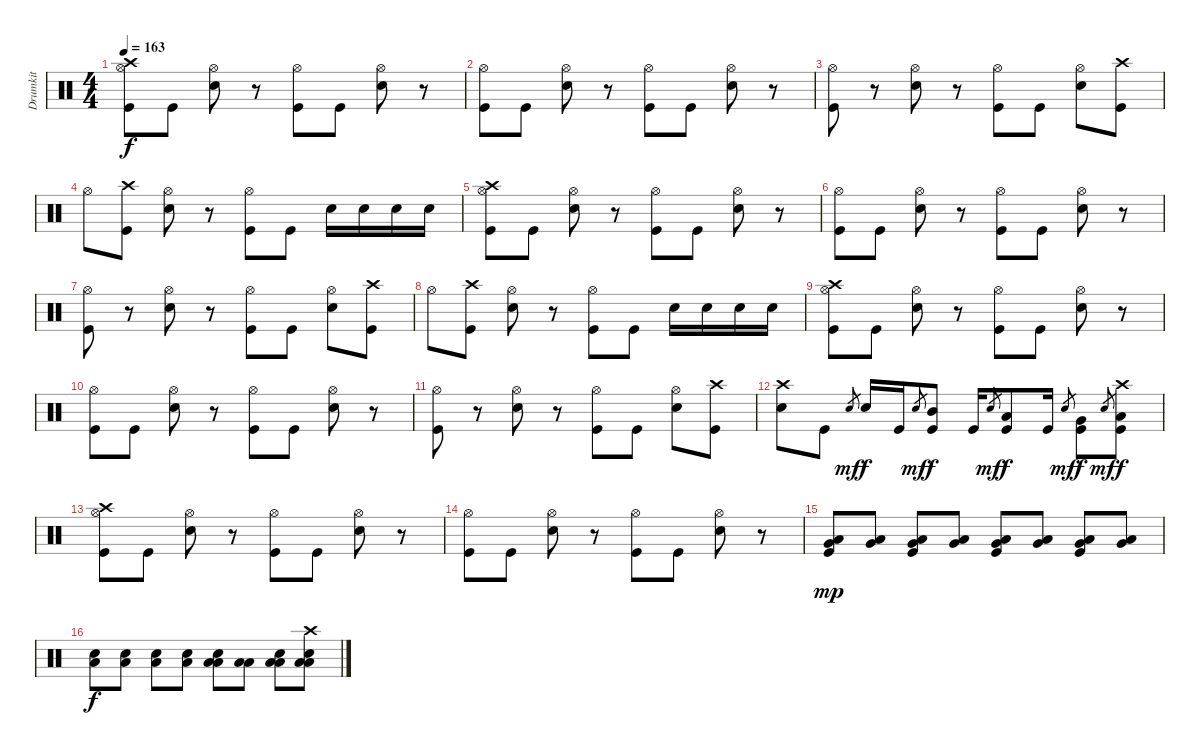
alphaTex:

\track ("Drumkit" "Drumkit") {instrument percussion}
\staff {score}
\articulation defaults
\ts (4 4)
\tempo 163
\clef neutral
\ks c
("Crash high (hit)" "Kick (hit)" "Hi-Hat (open)").8{dy f} "Kick (hit)".8 ("Snare (hit) 2" "Hi-Hat (open)").8 r.8 ("Kick (hit)" "Hi-Hat (open)").8 "Kick (hit)".8 ("Snare (hit) 2" "Hi-Hat (open)").8 r.8 |
("Kick (hit)" "Hi-Hat (open)").8 "Kick (hit)".8 ("Snare (hit) 2" "Hi-Hat (open)").8 r.8 ("Kick (hit)" "Hi-Hat (open)").8 "Kick (hit)".8 ("Snare (hit) 2" "Hi-Hat (open)").8 r.8 |
("Kick (hit)" "Hi-Hat (open)").8 r.8 ("Snare (hit) 2" "Hi-Hat (open)").8 r.8 ("Kick (hit)" "Hi-Hat (open)").8 "Kick (hit)".8 ("Snare (hit) 2" "Hi-Hat (open)").8 ("Kick (hit)" "Crash high (hit)").8 |
"Hi-Hat (open)".8 ("Kick (hit)" "Crash high (hit)").8 ("Snare (hit) 2" "Hi-Hat (open)").8 r.8 ("Kick (hit)" "Hi-Hat (open)").8 "Kick (hit)".8 "Snare (hit) 2".16 "Snare (hit) 2".16 "Snare (hit) 2".16 "Snare (hit) 2".16 |
("Crash high (hit)" "Kick (hit)" "Hi-Hat (open)").8 "Kick (hit)".8 ("Snare (hit) 2" "Hi-Hat (open)").8 r.8 ("Kick (hit)" "Hi-Hat (open)").8 "Kick (hit)".8 ("Snare (hit) 2" "Hi-Hat (open)").8 r.8 |
("Kick (hit)" "Hi-Hat (open)").8 "Kick (hit)".8 ("Snare (hit) 2" "Hi-Hat (open)").8 r.8 ("Kick (hit)" "Hi-Hat (open)").8 "Kick (hit)".8 ("Snare (hit) 2" "Hi-Hat (open)").8 r.8 |
("Kick (hit)" "Hi-Hat (open)").8 r.8 ("Snare (hit) 2" "Hi-Hat (open)").8 r.8 ("Kick (hit)" "Hi-Hat (open)").8 "Kick (hit)".8 ("Snare (hit) 2" "Hi-Hat (open)").8 ("Kick (hit)" "Crash high (hit)").8 |
"Hi-Hat (open)".8 ("Kick (hit)" "Crash high (hit)").8 ("Snare (hit) 2" "Hi-Hat (open)").8 r.8 ("Kick (hit)" "Hi-Hat (open)").8 "Kick (hit)".8 "Snare (hit) 2".16 "Snare (hit) 2".16 "Snare (hit) 2".16 "Snare (hit) 2".16 |
("Crash high (hit)" "Kick (hit)" "Hi-Hat (open)").8 "Kick (hit)".8 ("Snare (hit) 2" "Hi-Hat (open)").8 r.8 ("Kick (hit)" "Hi-Hat (open)").8 "Kick (hit)".8 ("Snare (hit) 2" "Hi-Hat (open)").8 r.8 |
("Kick (hit)" "Hi-Hat (open)").8 "Kick (hit)".8 ("Snare (hit) 2" "Hi-Hat (open)").8 r.8 ("Kick (hit)" "Hi-Hat (open)").8 "Kick (hit)".8 ("Snare (hit) 2" "Hi-Hat (open)").8 r.8 |
("Kick (hit)" "Hi-Hat (open)").8 r.8 ("Snare (hit) 2" "Hi-Hat (open)").8 r.8 ("Kick (hit)" "Hi-Hat (open)").8 "Kick (hit)".8 ("Snare (hit) 2" "Hi-Hat (open)").8 ("Kick (hit)" "Crash high (hit)").8 |
("Crash high (hit)" "Snare (hit) 2").8 "Kick (hit)".8 "Snare (hit)".8{gr dy mf} "Snare (hit) 2".16{dy f} "Kick (hit)".16 "Snare (hit)".8{gr dy mf} ("Kick (hit)" "Mid Tom (hit)").8{dy f} "Kick (hit)".16 "Snare (hit)".8{gr dy mf} ("Kick (hit)" "Low Tom (hit)").8{dy f} "Kick (hit)".16 "Snare (hit)".8{gr dy mf} ("Kick (hit)" "Very Low Tom (hit)").8{dy f} "Snare (hit)".8{gr dy mf} ("Crash high (hit)" "Kick (hit)" "Low Floor Tom (hit)").8{dy f} |
("Crash high (hit)" "Kick (hit)" "Hi-Hat (open)").8 "Kick (hit)".8 ("Snare (hit) 2" "Hi-Hat (open)").8 r.8 ("Kick (hit)" "Hi-Hat (open)").8 "Kick (hit)".8 ("Snare (hit) 2" "Hi-Hat (open)").8 r.8 |
("Kick (hit)" "Hi-Hat (open)").8 "Kick (hit)".8 ("Snare (hit) 2" "Hi-Hat (open)").8 r.8 ("Kick (hit)" "Hi-Hat (open)").8 "Kick (hit)".8 ("Snare (hit) 2" "Hi-Hat (open)").8 r.8 |
("Very Low Tom (hit)" "Low Floor Tom (hit)" "Kick (hit)").8{dy mp} ("Very Low Tom (hit)" "Low Floor Tom (hit)").8 ("Very Low Tom (hit)" "Low Floor Tom (hit)" "Kick (hit)").8 ("Very Low Tom (hit)" "Low Floor Tom (hit)").8 ("Very Low Tom (hit)" "Low Floor Tom (hit)" "Kick (hit)").8 ("Very Low Tom (hit)" "Low Floor Tom (hit)").8 ("Very Low Tom (hit)" "Low Floor Tom (hit)" "Kick (hit)").8 ("Very Low Tom (hit)" "Low Floor Tom (hit)").8 |
("Snare (hit) 2" "Low Floor Tom (hit)").8{dy f} ("Snare (hit) 2" "Low Floor Tom (hit)").8 ("Snare (hit) 2" "Low Floor Tom (hit)").8 ("Snare (hit) 2" "Low Floor Tom (hit)").8 ("Snare (hit) 2" "Low Tom (hit)" "Low Floor Tom (hit)").8 ("Low Tom (hit)" "Low Floor Tom (hit)").8 ("Snare (hit) 2" "Low Tom (hit)" "Low Floor Tom (hit)").8 ("Crash high (hit)" "Snare (hit) 2" "Low Tom (hit)" "Low Floor Tom (hit)").8
